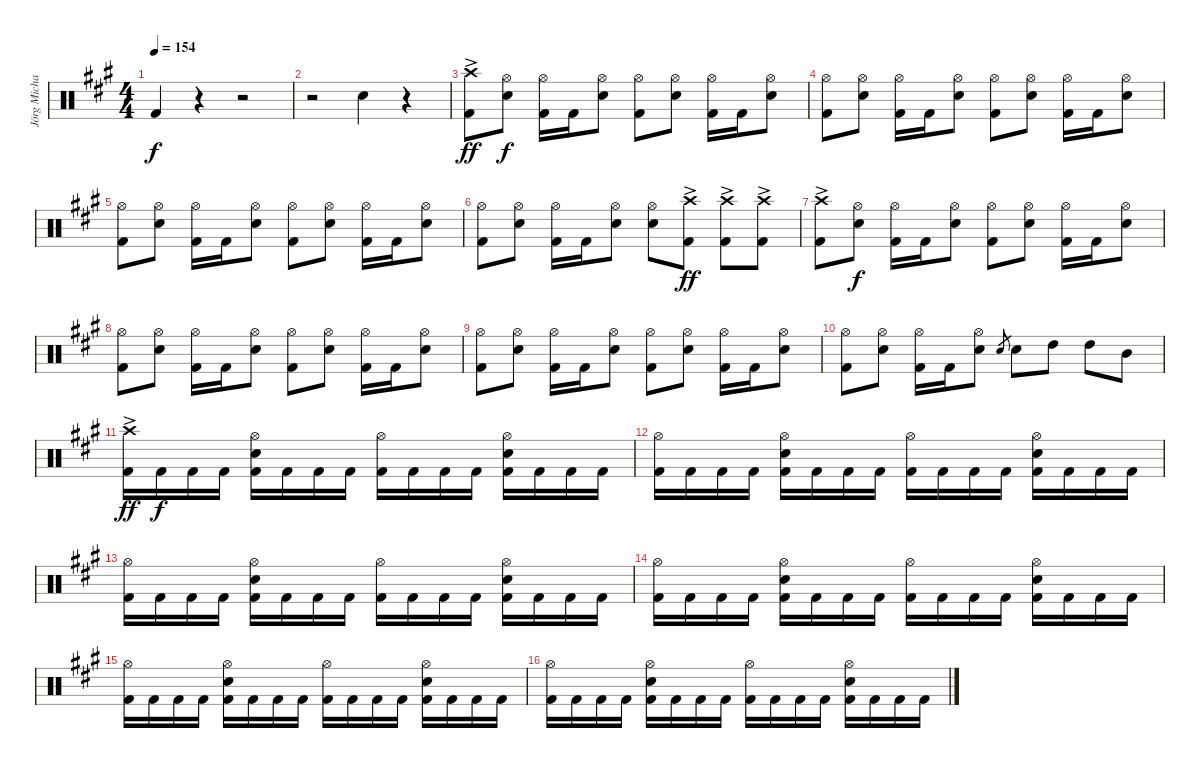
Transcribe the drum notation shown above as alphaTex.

\track ("Jörg Michael" "Jörg Micha") {instrument percussion}
\staff {score}
\articulation defaults
\ts (4 4)
\tempo 154
\clef neutral
\ks a "Kick (hit) 2".4{dy f}
r.4 r.2 |
r.2 "Electric Snare (hit)".4 r.4 |
("Crash high (hit)"{ac} "Kick (hit) 2"{ac}).8{dy ff} ("Hi-Hat (open)" "Electric Snare (hit)").8{dy f} ("Hi-Hat (open)" "Kick (hit) 2").16 "Kick (hit) 2".16 ("Hi-Hat (open)" "Electric Snare (hit)").8 ("Hi-Hat (open)" "Kick (hit) 2").8 ("Hi-Hat (open)" "Electric Snare (hit)").8 ("Hi-Hat (open)" "Kick (hit) 2").16 "Kick (hit) 2".16 ("Hi-Hat (open)" "Electric Snare (hit)").8 |
("Hi-Hat (open)" "Kick (hit) 2").8 ("Hi-Hat (open)" "Electric Snare (hit)").8 ("Hi-Hat (open)" "Kick (hit) 2").16 "Kick (hit) 2".16 ("Hi-Hat (open)" "Electric Snare (hit)").8 ("Hi-Hat (open)" "Kick (hit) 2").8 ("Hi-Hat (open)" "Electric Snare (hit)").8 ("Hi-Hat (open)" "Kick (hit) 2").16 "Kick (hit) 2".16 ("Hi-Hat (open)" "Electric Snare (hit)").8 |
("Hi-Hat (open)" "Kick (hit) 2").8 ("Hi-Hat (open)" "Electric Snare (hit)").8 ("Hi-Hat (open)" "Kick (hit) 2").16 "Kick (hit) 2".16 ("Hi-Hat (open)" "Electric Snare (hit)").8 ("Hi-Hat (open)" "Kick (hit) 2").8 ("Hi-Hat (open)" "Electric Snare (hit)").8 ("Hi-Hat (open)" "Kick (hit) 2").16 "Kick (hit) 2".16 ("Hi-Hat (open)" "Electric Snare (hit)").8 |
("Hi-Hat (open)" "Kick (hit) 2").8 ("Hi-Hat (open)" "Electric Snare (hit)").8 ("Hi-Hat (open)" "Kick (hit) 2").16 "Kick (hit) 2".16 ("Hi-Hat (open)" "Electric Snare (hit)").8 ("Hi-Hat (open)" "Electric Snare (hit)").8 ("Crash high (hit)"{ac} "Kick (hit) 2"{ac}).8{dy ff} ("Crash high (hit)"{ac} "Kick (hit) 2"{ac}).8 ("Crash high (hit)"{ac} "Kick (hit) 2"{ac}).8 |
("Crash high (hit)"{ac} "Kick (hit) 2"{ac}).8 ("Hi-Hat (open)" "Electric Snare (hit)").8{dy f} ("Hi-Hat (open)" "Kick (hit) 2").16 "Kick (hit) 2".16 ("Hi-Hat (open)" "Electric Snare (hit)").8 ("Hi-Hat (open)" "Kick (hit) 2").8 ("Hi-Hat (open)" "Electric Snare (hit)").8 ("Hi-Hat (open)" "Kick (hit) 2").16 "Kick (hit) 2".16 ("Hi-Hat (open)" "Electric Snare (hit)").8 |
("Hi-Hat (open)" "Kick (hit) 2").8 ("Hi-Hat (open)" "Electric Snare (hit)").8 ("Hi-Hat (open)" "Kick (hit) 2").16 "Kick (hit) 2".16 ("Hi-Hat (open)" "Electric Snare (hit)").8 ("Hi-Hat (open)" "Kick (hit) 2").8 ("Hi-Hat (open)" "Electric Snare (hit)").8 ("Hi-Hat (open)" "Kick (hit) 2").16 "Kick (hit) 2".16 ("Hi-Hat (open)" "Electric Snare (hit)").8 |
("Hi-Hat (open)" "Kick (hit) 2").8 ("Hi-Hat (open)" "Electric Snare (hit)").8 ("Hi-Hat (open)" "Kick (hit) 2").16 "Kick (hit) 2".16 ("Hi-Hat (open)" "Electric Snare (hit)").8 ("Hi-Hat (open)" "Kick (hit) 2").8 ("Hi-Hat (open)" "Electric Snare (hit)").8 ("Hi-Hat (open)" "Kick (hit) 2").16 "Kick (hit) 2".16 ("Hi-Hat (open)" "Electric Snare (hit)").8 |
("Hi-Hat (open)" "Kick (hit) 2").8 ("Hi-Hat (open)" "Electric Snare (hit)").8 ("Hi-Hat (open)" "Kick (hit) 2").16 "Kick (hit) 2".16 ("Hi-Hat (open)" "Electric Snare (hit)").8 "Electric Snare (hit)".8{gr} "Electric Snare (hit)".8 "High Tom (hit)".8 "High Tom (hit)".8 "Mid Tom (hit)".8 |
("Crash high (hit)"{ac} "Kick (hit) 2"{ac}).16{dy ff} "Kick (hit) 2".16{dy f} "Kick (hit) 2".16 "Kick (hit) 2".16 ("Electric Snare (hit)" "Kick (hit) 2" "Hi-Hat (open)").16 "Kick (hit) 2".16 "Kick (hit) 2".16 "Kick (hit) 2".16 ("Kick (hit) 2" "Hi-Hat (open)").16 "Kick (hit) 2".16 "Kick (hit) 2".16 "Kick (hit) 2".16 ("Electric Snare (hit)" "Kick (hit) 2" "Hi-Hat (open)").16 "Kick (hit) 2".16 "Kick (hit) 2".16 "Kick (hit) 2".16 |
("Hi-Hat (open)" "Kick (hit) 2").16 "Kick (hit) 2".16 "Kick (hit) 2".16 "Kick (hit) 2".16 ("Electric Snare (hit)" "Kick (hit) 2" "Hi-Hat (open)").16 "Kick (hit) 2".16 "Kick (hit) 2".16 "Kick (hit) 2".16 ("Kick (hit) 2" "Hi-Hat (open)").16 "Kick (hit) 2".16 "Kick (hit) 2".16 "Kick (hit) 2".16 ("Electric Snare (hit)" "Kick (hit) 2" "Hi-Hat (open)").16 "Kick (hit) 2".16 "Kick (hit) 2".16 "Kick (hit) 2".16 |
("Hi-Hat (open)" "Kick (hit) 2").16 "Kick (hit) 2".16 "Kick (hit) 2".16 "Kick (hit) 2".16 ("Electric Snare (hit)" "Kick (hit) 2" "Hi-Hat (open)").16 "Kick (hit) 2".16 "Kick (hit) 2".16 "Kick (hit) 2".16 ("Kick (hit) 2" "Hi-Hat (open)").16 "Kick (hit) 2".16 "Kick (hit) 2".16 "Kick (hit) 2".16 ("Electric Snare (hit)" "Kick (hit) 2" "Hi-Hat (open)").16 "Kick (hit) 2".16 "Kick (hit) 2".16 "Kick (hit) 2".16 |
("Hi-Hat (open)" "Kick (hit) 2").16 "Kick (hit) 2".16 "Kick (hit) 2".16 "Kick (hit) 2".16 ("Electric Snare (hit)" "Kick (hit) 2" "Hi-Hat (open)").16 "Kick (hit) 2".16 "Kick (hit) 2".16 "Kick (hit) 2".16 ("Kick (hit) 2" "Hi-Hat (open)").16 "Kick (hit) 2".16 "Kick (hit) 2".16 "Kick (hit) 2".16 ("Electric Snare (hit)" "Kick (hit) 2" "Hi-Hat (open)").16 "Kick (hit) 2".16 "Kick (hit) 2".16 "Kick (hit) 2".16 |
("Hi-Hat (open)" "Kick (hit) 2").16 "Kick (hit) 2".16 "Kick (hit) 2".16 "Kick (hit) 2".16 ("Electric Snare (hit)" "Kick (hit) 2" "Hi-Hat (open)").16 "Kick (hit) 2".16 "Kick (hit) 2".16 "Kick (hit) 2".16 ("Kick (hit) 2" "Hi-Hat (open)").16 "Kick (hit) 2".16 "Kick (hit) 2".16 "Kick (hit) 2".16 ("Electric Snare (hit)" "Kick (hit) 2" "Hi-Hat (open)").16 "Kick (hit) 2".16 "Kick (hit) 2".16 "Kick (hit) 2".16 |
("Hi-Hat (open)" "Kick (hit) 2").16 "Kick (hit) 2".16 "Kick (hit) 2".16 "Kick (hit) 2".16 ("Electric Snare (hit)" "Kick (hit) 2" "Hi-Hat (open)").16 "Kick (hit) 2".16 "Kick (hit) 2".16 "Kick (hit) 2".16 ("Kick (hit) 2" "Hi-Hat (open)").16 "Kick (hit) 2".16 "Kick (hit) 2".16 "Kick (hit) 2".16 ("Electric Snare (hit)" "Kick (hit) 2" "Hi-Hat (open)").16 "Kick (hit) 2".16 "Kick (hit) 2".16 "Kick (hit) 2".16
